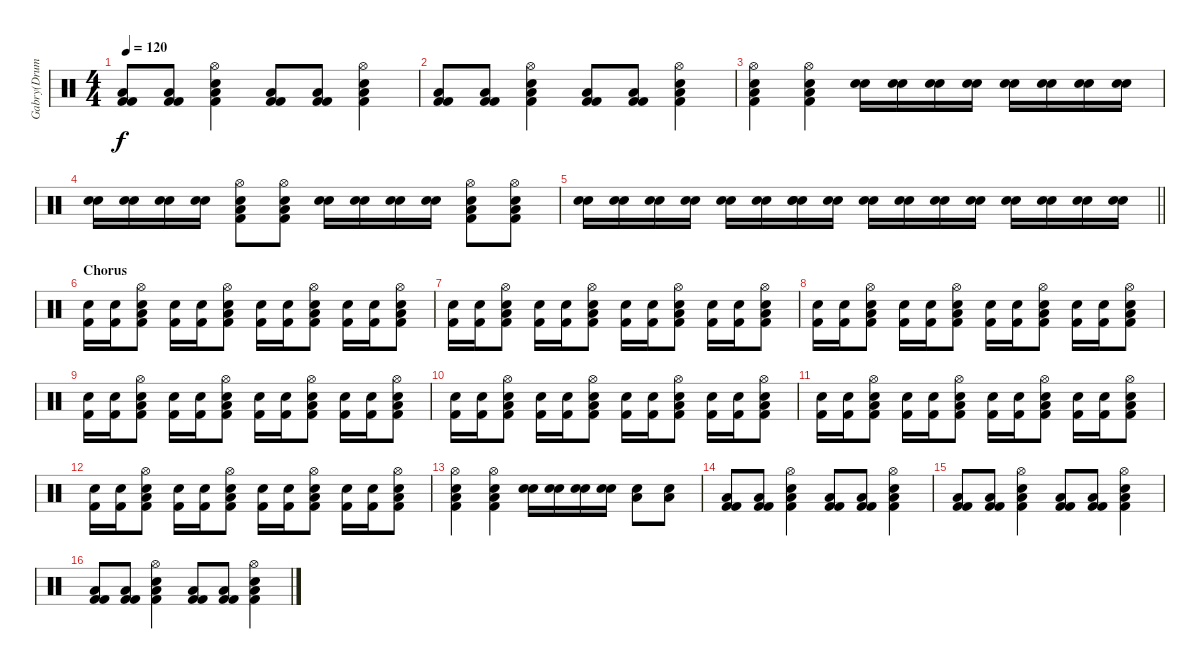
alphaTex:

\track ("Gabry(Drums)" "Gabry(Drum") {instrument percussion}
\staff {score}
\articulation defaults
\ts (4 4)
\tempo 120
\clef neutral
\ks c
("Kick (hit) 2" "Kick (hit) 2" "Low Floor Tom (hit)").8{dy f} ("Kick (hit) 2" "Kick (hit) 2" "Low Floor Tom (hit)").8 ("Kick (hit) 2" "Electric Snare (hit)" "Low Floor Tom (hit)" "Hi-Hat (open)").4 ("Kick (hit) 2" "Kick (hit) 2" "Low Floor Tom (hit)").8 ("Kick (hit) 2" "Kick (hit) 2" "Low Floor Tom (hit)").8 ("Kick (hit) 2" "Electric Snare (hit)" "Low Floor Tom (hit)" "Hi-Hat (open)").4 |
("Kick (hit) 2" "Kick (hit) 2" "Low Floor Tom (hit)").8 ("Kick (hit) 2" "Kick (hit) 2" "Low Floor Tom (hit)").8 ("Kick (hit) 2" "Electric Snare (hit)" "Low Floor Tom (hit)" "Hi-Hat (open)").4 ("Kick (hit) 2" "Kick (hit) 2" "Low Floor Tom (hit)").8 ("Kick (hit) 2" "Kick (hit) 2" "Low Floor Tom (hit)").8 ("Kick (hit) 2" "Electric Snare (hit)" "Low Floor Tom (hit)" "Hi-Hat (open)").4 |
("Kick (hit) 2" "Electric Snare (hit)" "Low Floor Tom (hit)" "Hi-Hat (open)").4 ("Kick (hit) 2" "Electric Snare (hit)" "Low Floor Tom (hit)" "Hi-Hat (open)").4 ("Electric Snare (hit)" "Electric Snare (hit)").16 ("Electric Snare (hit)" "Electric Snare (hit)").16 ("Electric Snare (hit)" "Electric Snare (hit)").16 ("Electric Snare (hit)" "Electric Snare (hit)").16 ("Electric Snare (hit)" "Electric Snare (hit)").16 ("Electric Snare (hit)" "Electric Snare (hit)").16 ("Electric Snare (hit)" "Electric Snare (hit)").16 ("Electric Snare (hit)" "Electric Snare (hit)").16 |
("Electric Snare (hit)" "Electric Snare (hit)").16 ("Electric Snare (hit)" "Electric Snare (hit)").16 ("Electric Snare (hit)" "Electric Snare (hit)").16 ("Electric Snare (hit)" "Electric Snare (hit)").16 ("Kick (hit) 2" "Electric Snare (hit)" "Low Floor Tom (hit)" "Hi-Hat (open)").8 ("Kick (hit) 2" "Electric Snare (hit)" "Low Floor Tom (hit)" "Hi-Hat (open)").8 ("Electric Snare (hit)" "Electric Snare (hit)").16 ("Electric Snare (hit)" "Electric Snare (hit)").16 ("Electric Snare (hit)" "Electric Snare (hit)").16 ("Electric Snare (hit)" "Electric Snare (hit)").16 ("Kick (hit) 2" "Electric Snare (hit)" "Low Floor Tom (hit)" "Hi-Hat (open)").8 ("Kick (hit) 2" "Electric Snare (hit)" "Low Floor Tom (hit)" "Hi-Hat (open)").8 |
\barLineRight lightlight
("Electric Snare (hit)" "Electric Snare (hit)").16 ("Electric Snare (hit)" "Electric Snare (hit)").16 ("Electric Snare (hit)" "Electric Snare (hit)").16 ("Electric Snare (hit)" "Electric Snare (hit)").16 ("Electric Snare (hit)" "Electric Snare (hit)").16 ("Electric Snare (hit)" "Electric Snare (hit)").16 ("Electric Snare (hit)" "Electric Snare (hit)" "Electric Snare (hit)").16 ("Electric Snare (hit)" "Electric Snare (hit)").16 ("Electric Snare (hit)" "Electric Snare (hit)").16 ("Electric Snare (hit)" "Electric Snare (hit)").16 ("Electric Snare (hit)" "Electric Snare (hit)").16 ("Electric Snare (hit)" "Electric Snare (hit)").16 ("Electric Snare (hit)" "Electric Snare (hit)").16 ("Electric Snare (hit)" "Electric Snare (hit)").16 ("Electric Snare (hit)" "Electric Snare (hit)").16 ("Electric Snare (hit)" "Electric Snare (hit)").16 |
\section ("" "Chorus")
("Kick (hit) 2" "Electric Snare (hit)").16 ("Kick (hit) 2" "Electric Snare (hit)").16 ("Kick (hit) 2" "Electric Snare (hit)" "Low Floor Tom (hit)" "Hi-Hat (open)").8 ("Kick (hit) 2" "Electric Snare (hit)").16 ("Kick (hit) 2" "Electric Snare (hit)").16 ("Kick (hit) 2" "Electric Snare (hit)" "Low Floor Tom (hit)" "Hi-Hat (open)").8 ("Kick (hit) 2" "Electric Snare (hit)").16 ("Kick (hit) 2" "Electric Snare (hit)").16 ("Kick (hit) 2" "Electric Snare (hit)" "Low Floor Tom (hit)" "Hi-Hat (open)").8 ("Kick (hit) 2" "Electric Snare (hit)").16 ("Kick (hit) 2" "Electric Snare (hit)").16 ("Kick (hit) 2" "Electric Snare (hit)" "Low Floor Tom (hit)" "Hi-Hat (open)").8 |
("Kick (hit) 2" "Electric Snare (hit)").16 ("Kick (hit) 2" "Electric Snare (hit)").16 ("Kick (hit) 2" "Electric Snare (hit)" "Low Floor Tom (hit)" "Hi-Hat (open)").8 ("Kick (hit) 2" "Electric Snare (hit)").16 ("Kick (hit) 2" "Electric Snare (hit)").16 ("Kick (hit) 2" "Electric Snare (hit)" "Low Floor Tom (hit)" "Hi-Hat (open)").8 ("Kick (hit) 2" "Electric Snare (hit)").16 ("Kick (hit) 2" "Electric Snare (hit)").16 ("Kick (hit) 2" "Electric Snare (hit)" "Low Floor Tom (hit)" "Hi-Hat (open)").8 ("Kick (hit) 2" "Electric Snare (hit)").16 ("Kick (hit) 2" "Electric Snare (hit)").16 ("Kick (hit) 2" "Electric Snare (hit)" "Low Floor Tom (hit)" "Hi-Hat (open)").8 |
("Kick (hit) 2" "Electric Snare (hit)").16 ("Kick (hit) 2" "Electric Snare (hit)").16 ("Kick (hit) 2" "Electric Snare (hit)" "Low Floor Tom (hit)" "Hi-Hat (open)").8 ("Kick (hit) 2" "Electric Snare (hit)").16 ("Kick (hit) 2" "Electric Snare (hit)").16 ("Kick (hit) 2" "Electric Snare (hit)" "Low Floor Tom (hit)" "Hi-Hat (open)").8 ("Kick (hit) 2" "Electric Snare (hit)").16 ("Kick (hit) 2" "Electric Snare (hit)").16 ("Kick (hit) 2" "Electric Snare (hit)" "Low Floor Tom (hit)" "Hi-Hat (open)").8 ("Kick (hit) 2" "Electric Snare (hit)").16 ("Kick (hit) 2" "Electric Snare (hit)").16 ("Kick (hit) 2" "Electric Snare (hit)" "Low Floor Tom (hit)" "Hi-Hat (open)").8 |
("Kick (hit) 2" "Electric Snare (hit)").16 ("Kick (hit) 2" "Electric Snare (hit)").16 ("Kick (hit) 2" "Electric Snare (hit)" "Low Floor Tom (hit)" "Hi-Hat (open)").8 ("Kick (hit) 2" "Electric Snare (hit)").16 ("Kick (hit) 2" "Electric Snare (hit)").16 ("Kick (hit) 2" "Electric Snare (hit)" "Low Floor Tom (hit)" "Hi-Hat (open)").8 ("Kick (hit) 2" "Electric Snare (hit)").16 ("Kick (hit) 2" "Electric Snare (hit)").16 ("Kick (hit) 2" "Electric Snare (hit)" "Low Floor Tom (hit)" "Hi-Hat (open)").8 ("Kick (hit) 2" "Electric Snare (hit)").16 ("Kick (hit) 2" "Electric Snare (hit)").16 ("Kick (hit) 2" "Electric Snare (hit)" "Low Floor Tom (hit)" "Hi-Hat (open)").8 |
("Kick (hit) 2" "Electric Snare (hit)").16 ("Kick (hit) 2" "Electric Snare (hit)").16 ("Kick (hit) 2" "Electric Snare (hit)" "Low Floor Tom (hit)" "Hi-Hat (open)").8 ("Kick (hit) 2" "Electric Snare (hit)").16 ("Kick (hit) 2" "Electric Snare (hit)").16 ("Kick (hit) 2" "Electric Snare (hit)" "Low Floor Tom (hit)" "Hi-Hat (open)").8 ("Kick (hit) 2" "Electric Snare (hit)").16 ("Kick (hit) 2" "Electric Snare (hit)").16 ("Kick (hit) 2" "Electric Snare (hit)" "Low Floor Tom (hit)" "Hi-Hat (open)").8 ("Kick (hit) 2" "Electric Snare (hit)").16 ("Kick (hit) 2" "Electric Snare (hit)").16 ("Kick (hit) 2" "Electric Snare (hit)" "Low Floor Tom (hit)" "Hi-Hat (open)").8 |
("Kick (hit) 2" "Electric Snare (hit)").16 ("Kick (hit) 2" "Electric Snare (hit)").16 ("Kick (hit) 2" "Electric Snare (hit)" "Low Floor Tom (hit)" "Hi-Hat (open)").8 ("Kick (hit) 2" "Electric Snare (hit)").16 ("Kick (hit) 2" "Electric Snare (hit)").16 ("Kick (hit) 2" "Electric Snare (hit)" "Low Floor Tom (hit)" "Hi-Hat (open)").8 ("Kick (hit) 2" "Electric Snare (hit)").16 ("Kick (hit) 2" "Electric Snare (hit)").16 ("Kick (hit) 2" "Electric Snare (hit)" "Low Floor Tom (hit)" "Hi-Hat (open)").8 ("Kick (hit) 2" "Electric Snare (hit)").16 ("Kick (hit) 2" "Electric Snare (hit)").16 ("Kick (hit) 2" "Electric Snare (hit)" "Low Floor Tom (hit)" "Hi-Hat (open)").8 |
("Kick (hit) 2" "Electric Snare (hit)").16 ("Kick (hit) 2" "Electric Snare (hit)").16 ("Kick (hit) 2" "Electric Snare (hit)" "Low Floor Tom (hit)" "Hi-Hat (open)").8 ("Kick (hit) 2" "Electric Snare (hit)").16 ("Kick (hit) 2" "Electric Snare (hit)").16 ("Kick (hit) 2" "Electric Snare (hit)" "Low Floor Tom (hit)" "Hi-Hat (open)").8 ("Kick (hit) 2" "Electric Snare (hit)").16 ("Kick (hit) 2" "Electric Snare (hit)").16 ("Kick (hit) 2" "Electric Snare (hit)" "Low Floor Tom (hit)" "Hi-Hat (open)").8 ("Kick (hit) 2" "Electric Snare (hit)").16 ("Kick (hit) 2" "Electric Snare (hit)").16 ("Kick (hit) 2" "Electric Snare (hit)" "Low Floor Tom (hit)" "Hi-Hat (open)").8 |
("Kick (hit) 2" "Electric Snare (hit)" "Low Floor Tom (hit)" "Hi-Hat (open)").4 ("Kick (hit) 2" "Electric Snare (hit)" "Low Floor Tom (hit)" "Hi-Hat (open)").4 ("Electric Snare (hit)" "Electric Snare (hit)").16 ("Electric Snare (hit)" "Electric Snare (hit)").16 ("Electric Snare (hit)" "Electric Snare (hit)").16 ("Electric Snare (hit)" "Electric Snare (hit)").16 ("Electric Snare (hit)" "Low Floor Tom (hit)").8 ("Electric Snare (hit)" "Low Floor Tom (hit)").8 |
("Kick (hit) 2" "Kick (hit) 2" "Low Floor Tom (hit)").8 ("Kick (hit) 2" "Kick (hit) 2" "Low Floor Tom (hit)").8 ("Kick (hit) 2" "Electric Snare (hit)" "Low Floor Tom (hit)" "Hi-Hat (open)").4 ("Kick (hit) 2" "Kick (hit) 2" "Low Floor Tom (hit)").8 ("Kick (hit) 2" "Kick (hit) 2" "Low Floor Tom (hit)").8 ("Kick (hit) 2" "Electric Snare (hit)" "Low Floor Tom (hit)" "Hi-Hat (open)").4 |
("Kick (hit) 2" "Kick (hit) 2" "Low Floor Tom (hit)").8 ("Kick (hit) 2" "Kick (hit) 2" "Low Floor Tom (hit)").8 ("Kick (hit) 2" "Electric Snare (hit)" "Low Floor Tom (hit)" "Hi-Hat (open)").4 ("Kick (hit) 2" "Kick (hit) 2" "Low Floor Tom (hit)").8 ("Kick (hit) 2" "Kick (hit) 2" "Low Floor Tom (hit)").8 ("Kick (hit) 2" "Electric Snare (hit)" "Low Floor Tom (hit)" "Hi-Hat (open)").4 |
("Kick (hit) 2" "Kick (hit) 2" "Low Floor Tom (hit)").8 ("Kick (hit) 2" "Kick (hit) 2" "Low Floor Tom (hit)").8 ("Kick (hit) 2" "Electric Snare (hit)" "Low Floor Tom (hit)" "Hi-Hat (open)").4 ("Kick (hit) 2" "Kick (hit) 2" "Low Floor Tom (hit)").8 ("Kick (hit) 2" "Kick (hit) 2" "Low Floor Tom (hit)").8 ("Kick (hit) 2" "Electric Snare (hit)" "Low Floor Tom (hit)" "Hi-Hat (open)").4
